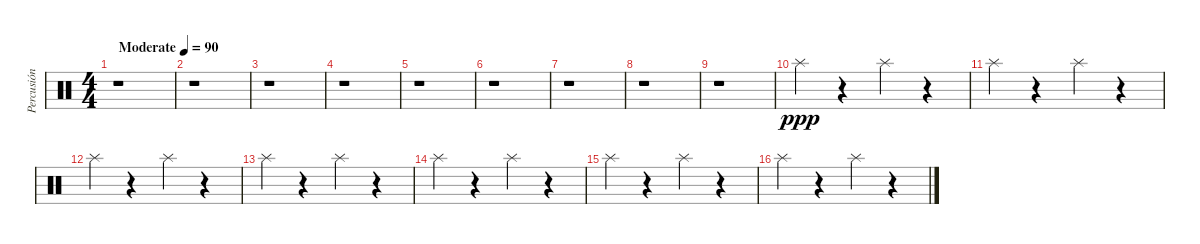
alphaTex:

\track ("Percusión" "Percusión") {instrument percussion}
\staff {score}
\articulation defaults
\ts (4 4)
\tempo (90 "Moderate")
\clef neutral
\ks c
r.1{dy ppp} |
r.1 |
r.1 |
r.1 |
r.1 |
r.1 |
r.1 |
r.1 |
r.1 |
"Splash (hit)".4 r.4 "Splash (hit)".4 r.4 |
"Splash (hit)".4 r.4 "Splash (hit)".4 r.4 |
"Splash (hit)".4 r.4 "Splash (hit)".4 r.4 |
"Splash (hit)".4 r.4 "Splash (hit)".4 r.4 |
"Splash (hit)".4 r.4 "Splash (hit)".4 r.4 |
"Splash (hit)".4 r.4 "Splash (hit)".4 r.4 |
"Splash (hit)".4 r.4 "Splash (hit)".4 r.4
